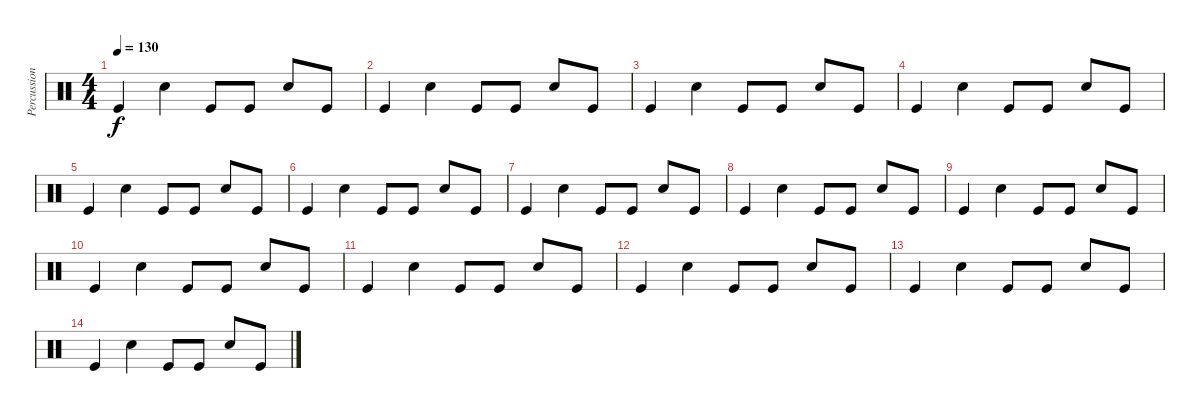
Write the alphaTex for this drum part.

\track ("Percussion" "Percussion") {instrument percussion}
\staff {score}
\articulation defaults
\ts (4 4)
\tempo 130
\clef neutral
\ks c "Kick (hit)".4{dy f} "Snare (hit) 2".4 "Kick (hit)".8 "Kick (hit)".8 "Snare (hit) 2".8 "Kick (hit)".8
|
"Kick (hit)".4 "Snare (hit) 2".4 "Kick (hit)".8 "Kick (hit)".8 "Snare (hit) 2".8 "Kick (hit)".8 |
"Kick (hit)".4 "Snare (hit) 2".4 "Kick (hit)".8 "Kick (hit)".8 "Snare (hit) 2".8 "Kick (hit)".8 |
"Kick (hit)".4 "Snare (hit) 2".4 "Kick (hit)".8 "Kick (hit)".8 "Snare (hit) 2".8 "Kick (hit)".8 |
"Kick (hit)".4 "Snare (hit) 2".4 "Kick (hit)".8 "Kick (hit)".8 "Snare (hit) 2".8 "Kick (hit)".8 |
"Kick (hit)".4 "Snare (hit) 2".4 "Kick (hit)".8 "Kick (hit)".8 "Snare (hit) 2".8 "Kick (hit)".8 |
"Kick (hit)".4 "Snare (hit) 2".4 "Kick (hit)".8 "Kick (hit)".8 "Snare (hit) 2".8 "Kick (hit)".8 |
"Kick (hit)".4 "Snare (hit) 2".4 "Kick (hit)".8 "Kick (hit)".8 "Snare (hit) 2".8 "Kick (hit)".8 |
"Kick (hit)".4 "Snare (hit) 2".4 "Kick (hit)".8 "Kick (hit)".8 "Snare (hit) 2".8 "Kick (hit)".8 |
"Kick (hit)".4 "Snare (hit) 2".4 "Kick (hit)".8 "Kick (hit)".8 "Snare (hit) 2".8 "Kick (hit)".8 |
"Kick (hit)".4 "Snare (hit) 2".4 "Kick (hit)".8 "Kick (hit)".8 "Snare (hit) 2".8 "Kick (hit)".8 |
"Kick (hit)".4 "Snare (hit) 2".4 "Kick (hit)".8 "Kick (hit)".8 "Snare (hit) 2".8 "Kick (hit)".8 |
"Kick (hit)".4 "Snare (hit) 2".4 "Kick (hit)".8 "Kick (hit)".8 "Snare (hit) 2".8 "Kick (hit)".8 |
"Kick (hit)".4 "Snare (hit) 2".4 "Kick (hit)".8 "Kick (hit)".8 "Snare (hit) 2".8 "Kick (hit)".8
